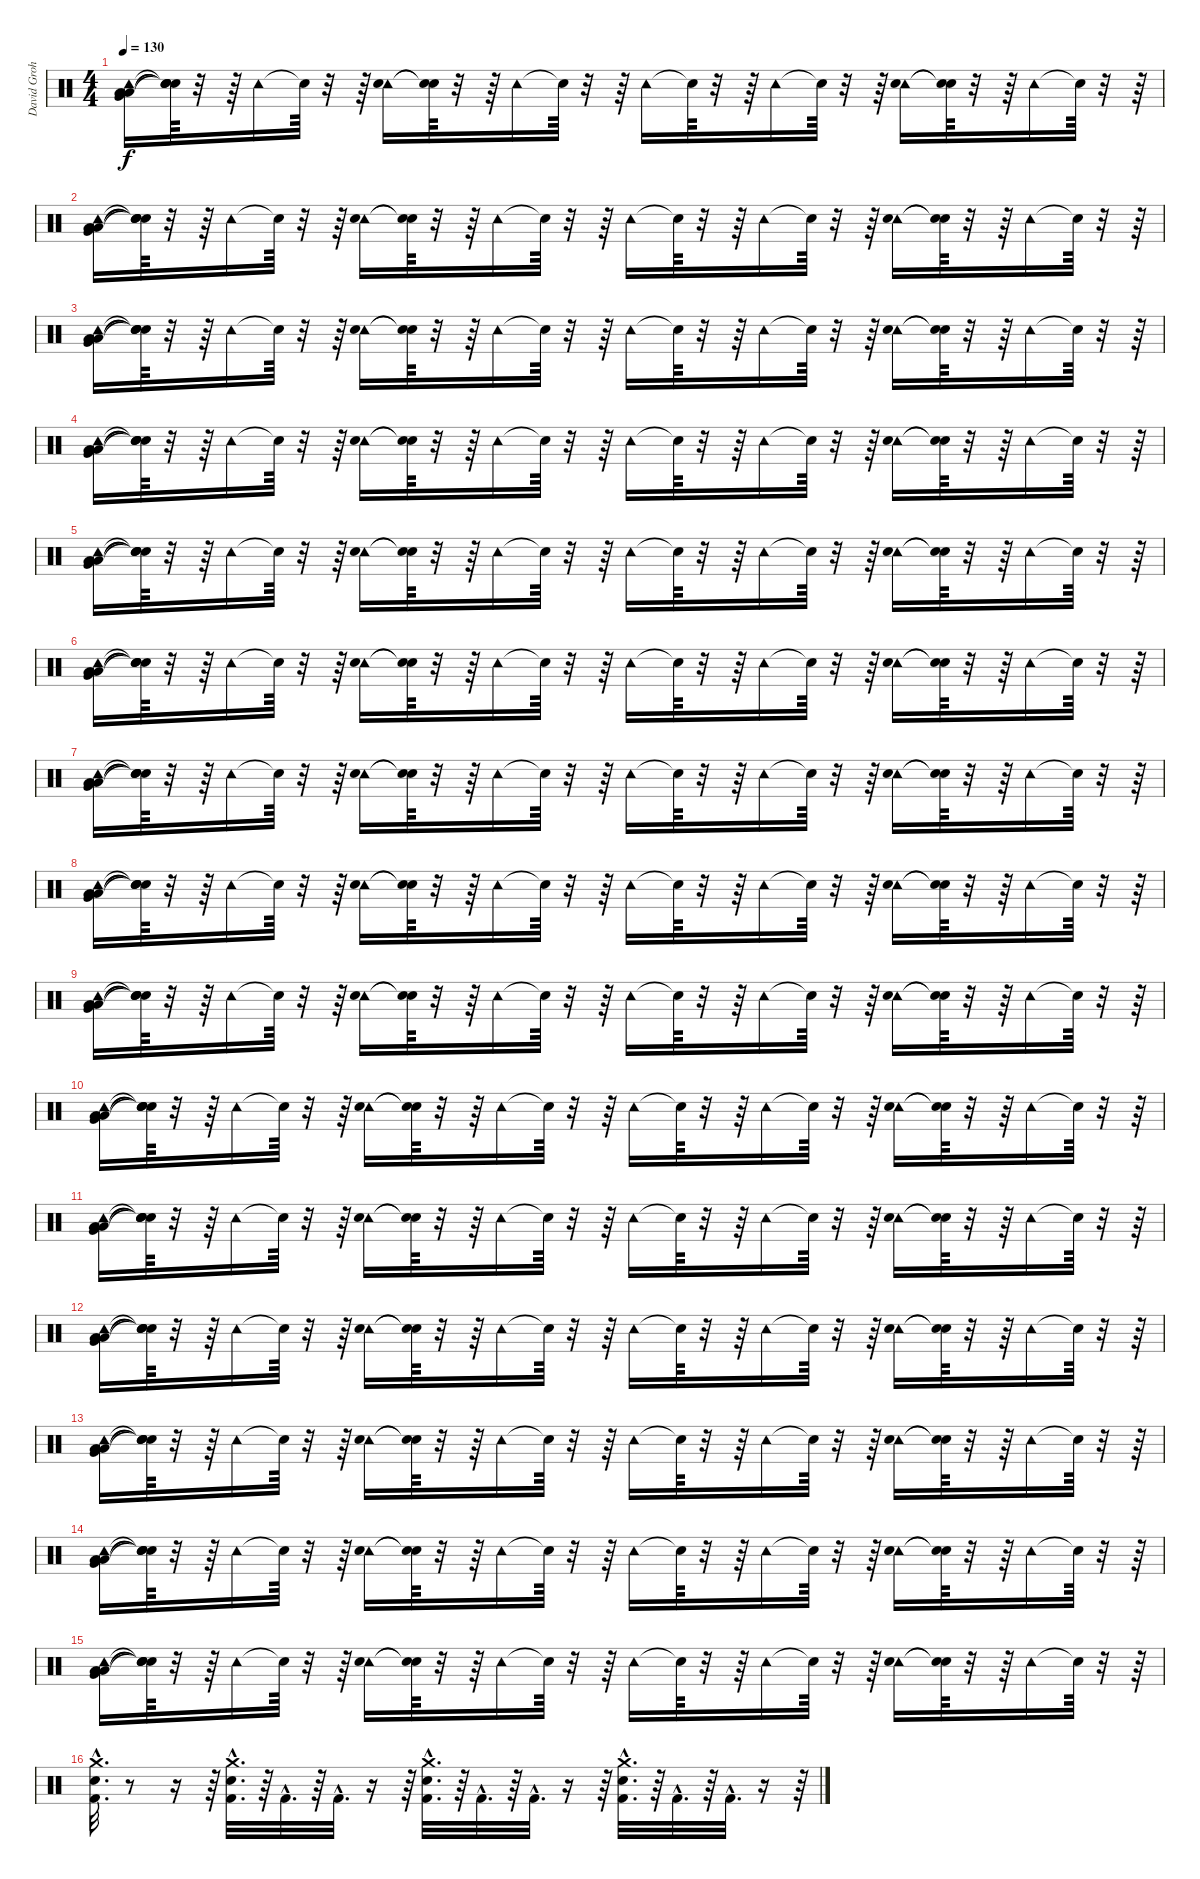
\track ("David Grohl -Drums-" "David Groh") {instrument percussion}
\staff {score}
\articulation defaults
\ts (4 4)
\tempo 130
\clef neutral
\ks c
("Low Floor Tom (hit)" "Very Low Tom (hit)" "Low Tom (hit)" "Tambourine (hit)").16{dy f} ("Snare (hit)"{t} "Snare (hit)"{t} "Snare (hit)"{t} "Snare (hit)"{t}).64 r.32 r.64 "Tambourine (hit)".16 "Snare (hit)"{t}.64 r.32 r.64 ("Tambourine (hit)" "Electric Snare (hit)").16 ("Snare (hit)"{t} "Snare (hit)"{t}).64 r.32 r.64 "Tambourine (hit)".16 "Snare (hit)"{t}.64 r.32 r.64 "Tambourine (hit)".16 "Snare (hit)"{t}.64 r.32 r.64 "Tambourine (hit)".16 "Snare (hit)"{t}.64 r.32 r.64 ("Tambourine (hit)" "Electric Snare (hit)").16 ("Snare (hit)"{t} "Snare (hit)"{t}).64 r.32 r.64 "Tambourine (hit)".16 "Snare (hit)"{t}.64 r.32 r.64 |
("Tambourine (hit)" "Low Floor Tom (hit)" "Very Low Tom (hit)" "Low Tom (hit)").16 ("Snare (hit)"{t} "Snare (hit)"{t} "Snare (hit)"{t} "Snare (hit)"{t}).64 r.32 r.64 "Tambourine (hit)".16 "Snare (hit)"{t}.64 r.32 r.64 ("Tambourine (hit)" "Electric Snare (hit)").16 ("Snare (hit)"{t} "Snare (hit)"{t}).64 r.32 r.64 "Tambourine (hit)".16 "Snare (hit)"{t}.64 r.32 r.64 "Tambourine (hit)".16 "Snare (hit)"{t}.64 r.32 r.64 "Tambourine (hit)".16 "Snare (hit)"{t}.64 r.32 r.64 ("Tambourine (hit)" "Electric Snare (hit)").16 ("Snare (hit)"{t} "Snare (hit)"{t}).64 r.32 r.64 "Tambourine (hit)".16 "Snare (hit)"{t}.64 r.32 r.64 |
("Tambourine (hit)" "Low Floor Tom (hit)" "Very Low Tom (hit)" "Low Tom (hit)").16 ("Snare (hit)"{t} "Snare (hit)"{t} "Snare (hit)"{t} "Snare (hit)"{t}).64 r.32 r.64 "Tambourine (hit)".16 "Snare (hit)"{t}.64 r.32 r.64 ("Tambourine (hit)" "Electric Snare (hit)").16 ("Snare (hit)"{t} "Snare (hit)"{t}).64 r.32 r.64 "Tambourine (hit)".16 "Snare (hit)"{t}.64 r.32 r.64 "Tambourine (hit)".16 "Snare (hit)"{t}.64 r.32 r.64 "Tambourine (hit)".16 "Snare (hit)"{t}.64 r.32 r.64 ("Tambourine (hit)" "Electric Snare (hit)").16 ("Snare (hit)"{t} "Snare (hit)"{t}).64 r.32 r.64 "Tambourine (hit)".16 "Snare (hit)"{t}.64 r.32 r.64 |
("Tambourine (hit)" "Low Floor Tom (hit)" "Very Low Tom (hit)" "Low Tom (hit)").16 ("Snare (hit)"{t} "Snare (hit)"{t} "Snare (hit)"{t} "Snare (hit)"{t}).64 r.32 r.64 "Tambourine (hit)".16 "Snare (hit)"{t}.64 r.32 r.64 ("Tambourine (hit)" "Electric Snare (hit)").16 ("Snare (hit)"{t} "Snare (hit)"{t}).64 r.32 r.64 "Tambourine (hit)".16 "Snare (hit)"{t}.64 r.32 r.64 "Tambourine (hit)".16 "Snare (hit)"{t}.64 r.32 r.64 "Tambourine (hit)".16 "Snare (hit)"{t}.64 r.32 r.64 ("Tambourine (hit)" "Electric Snare (hit)").16 ("Snare (hit)"{t} "Snare (hit)"{t}).64 r.32 r.64 "Tambourine (hit)".16 "Snare (hit)"{t}.64 r.32 r.64 |
("Tambourine (hit)" "Low Floor Tom (hit)" "Very Low Tom (hit)" "Low Tom (hit)").16 ("Snare (hit)"{t} "Snare (hit)"{t} "Snare (hit)"{t} "Snare (hit)"{t}).64 r.32 r.64 "Tambourine (hit)".16 "Snare (hit)"{t}.64 r.32 r.64 ("Tambourine (hit)" "Electric Snare (hit)").16 ("Snare (hit)"{t} "Snare (hit)"{t}).64 r.32 r.64 "Tambourine (hit)".16 "Snare (hit)"{t}.64 r.32 r.64 "Tambourine (hit)".16 "Snare (hit)"{t}.64 r.32 r.64 "Tambourine (hit)".16 "Snare (hit)"{t}.64 r.32 r.64 ("Tambourine (hit)" "Electric Snare (hit)").16 ("Snare (hit)"{t} "Snare (hit)"{t}).64 r.32 r.64 "Tambourine (hit)".16 "Snare (hit)"{t}.64 r.32 r.64 |
("Tambourine (hit)" "Low Floor Tom (hit)" "Very Low Tom (hit)" "Low Tom (hit)").16 ("Snare (hit)"{t} "Snare (hit)"{t} "Snare (hit)"{t} "Snare (hit)"{t}).64 r.32 r.64 "Tambourine (hit)".16 "Snare (hit)"{t}.64 r.32 r.64 ("Tambourine (hit)" "Electric Snare (hit)").16 ("Snare (hit)"{t} "Snare (hit)"{t}).64 r.32 r.64 "Tambourine (hit)".16 "Snare (hit)"{t}.64 r.32 r.64 "Tambourine (hit)".16 "Snare (hit)"{t}.64 r.32 r.64 "Tambourine (hit)".16 "Snare (hit)"{t}.64 r.32 r.64 ("Tambourine (hit)" "Electric Snare (hit)").16 ("Snare (hit)"{t} "Snare (hit)"{t}).64 r.32 r.64 "Tambourine (hit)".16 "Snare (hit)"{t}.64 r.32 r.64 |
("Tambourine (hit)" "Low Floor Tom (hit)" "Very Low Tom (hit)" "Low Tom (hit)").16 ("Snare (hit)"{t} "Snare (hit)"{t} "Snare (hit)"{t} "Snare (hit)"{t}).64 r.32 r.64 "Tambourine (hit)".16 "Snare (hit)"{t}.64 r.32 r.64 ("Tambourine (hit)" "Electric Snare (hit)").16 ("Snare (hit)"{t} "Snare (hit)"{t}).64 r.32 r.64 "Tambourine (hit)".16 "Snare (hit)"{t}.64 r.32 r.64 "Tambourine (hit)".16 "Snare (hit)"{t}.64 r.32 r.64 "Tambourine (hit)".16 "Snare (hit)"{t}.64 r.32 r.64 ("Tambourine (hit)" "Electric Snare (hit)").16 ("Snare (hit)"{t} "Snare (hit)"{t}).64 r.32 r.64 "Tambourine (hit)".16 "Snare (hit)"{t}.64 r.32 r.64 |
("Tambourine (hit)" "Low Floor Tom (hit)" "Very Low Tom (hit)" "Low Tom (hit)").16 ("Snare (hit)"{t} "Snare (hit)"{t} "Snare (hit)"{t} "Snare (hit)"{t}).64 r.32 r.64 "Tambourine (hit)".16 "Snare (hit)"{t}.64 r.32 r.64 ("Tambourine (hit)" "Electric Snare (hit)").16 ("Snare (hit)"{t} "Snare (hit)"{t}).64 r.32 r.64 "Tambourine (hit)".16 "Snare (hit)"{t}.64 r.32 r.64 "Tambourine (hit)".16 "Snare (hit)"{t}.64 r.32 r.64 "Tambourine (hit)".16 "Snare (hit)"{t}.64 r.32 r.64 ("Tambourine (hit)" "Electric Snare (hit)").16 ("Snare (hit)"{t} "Snare (hit)"{t}).64 r.32 r.64 "Tambourine (hit)".16 "Snare (hit)"{t}.64 r.32 r.64 |
("Low Floor Tom (hit)" "Very Low Tom (hit)" "Low Tom (hit)" "Tambourine (hit)").16 ("Snare (hit)"{t} "Snare (hit)"{t} "Snare (hit)"{t} "Snare (hit)"{t}).64 r.32 r.64 "Tambourine (hit)".16 "Snare (hit)"{t}.64 r.32 r.64 ("Tambourine (hit)" "Electric Snare (hit)").16 ("Snare (hit)"{t} "Snare (hit)"{t}).64 r.32 r.64 "Tambourine (hit)".16 "Snare (hit)"{t}.64 r.32 r.64 "Tambourine (hit)".16 "Snare (hit)"{t}.64 r.32 r.64 "Tambourine (hit)".16 "Snare (hit)"{t}.64 r.32 r.64 ("Tambourine (hit)" "Electric Snare (hit)").16 ("Snare (hit)"{t} "Snare (hit)"{t}).64 r.32 r.64 "Tambourine (hit)".16 "Snare (hit)"{t}.64 r.32 r.64 |
("Tambourine (hit)" "Low Floor Tom (hit)" "Very Low Tom (hit)" "Low Tom (hit)").16 ("Snare (hit)"{t} "Snare (hit)"{t} "Snare (hit)"{t} "Snare (hit)"{t}).64 r.32 r.64 "Tambourine (hit)".16 "Snare (hit)"{t}.64 r.32 r.64 ("Tambourine (hit)" "Electric Snare (hit)").16 ("Snare (hit)"{t} "Snare (hit)"{t}).64 r.32 r.64 "Tambourine (hit)".16 "Snare (hit)"{t}.64 r.32 r.64 "Tambourine (hit)".16 "Snare (hit)"{t}.64 r.32 r.64 "Tambourine (hit)".16 "Snare (hit)"{t}.64 r.32 r.64 ("Tambourine (hit)" "Electric Snare (hit)").16 ("Snare (hit)"{t} "Snare (hit)"{t}).64 r.32 r.64 "Tambourine (hit)".16 "Snare (hit)"{t}.64 r.32 r.64 |
("Tambourine (hit)" "Low Floor Tom (hit)" "Very Low Tom (hit)" "Low Tom (hit)").16 ("Snare (hit)"{t} "Snare (hit)"{t} "Snare (hit)"{t} "Snare (hit)"{t}).64 r.32 r.64 "Tambourine (hit)".16 "Snare (hit)"{t}.64 r.32 r.64 ("Tambourine (hit)" "Electric Snare (hit)").16 ("Snare (hit)"{t} "Snare (hit)"{t}).64 r.32 r.64 "Tambourine (hit)".16 "Snare (hit)"{t}.64 r.32 r.64 "Tambourine (hit)".16 "Snare (hit)"{t}.64 r.32 r.64 "Tambourine (hit)".16 "Snare (hit)"{t}.64 r.32 r.64 ("Tambourine (hit)" "Electric Snare (hit)").16 ("Snare (hit)"{t} "Snare (hit)"{t}).64 r.32 r.64 "Tambourine (hit)".16 "Snare (hit)"{t}.64 r.32 r.64 |
("Tambourine (hit)" "Low Floor Tom (hit)" "Very Low Tom (hit)" "Low Tom (hit)").16 ("Snare (hit)"{t} "Snare (hit)"{t} "Snare (hit)"{t} "Snare (hit)"{t}).64 r.32 r.64 "Tambourine (hit)".16 "Snare (hit)"{t}.64 r.32 r.64 ("Tambourine (hit)" "Electric Snare (hit)").16 ("Snare (hit)"{t} "Snare (hit)"{t}).64 r.32 r.64 "Tambourine (hit)".16 "Snare (hit)"{t}.64 r.32 r.64 "Tambourine (hit)".16 "Snare (hit)"{t}.64 r.32 r.64 "Tambourine (hit)".16 "Snare (hit)"{t}.64 r.32 r.64 ("Tambourine (hit)" "Electric Snare (hit)").16 ("Snare (hit)"{t} "Snare (hit)"{t}).64 r.32 r.64 "Tambourine (hit)".16 "Snare (hit)"{t}.64 r.32 r.64 |
("Low Floor Tom (hit)" "Very Low Tom (hit)" "Low Tom (hit)" "Tambourine (hit)").16 ("Snare (hit)"{t} "Snare (hit)"{t} "Snare (hit)"{t} "Snare (hit)"{t}).64 r.32 r.64 "Tambourine (hit)".16 "Snare (hit)"{t}.64 r.32 r.64 ("Tambourine (hit)" "Electric Snare (hit)").16 ("Snare (hit)"{t} "Snare (hit)"{t}).64 r.32 r.64 "Tambourine (hit)".16 "Snare (hit)"{t}.64 r.32 r.64 "Tambourine (hit)".16 "Snare (hit)"{t}.64 r.32 r.64 "Tambourine (hit)".16 "Snare (hit)"{t}.64 r.32 r.64 ("Tambourine (hit)" "Electric Snare (hit)").16 ("Snare (hit)"{t} "Snare (hit)"{t}).64 r.32 r.64 "Tambourine (hit)".16 "Snare (hit)"{t}.64 r.32 r.64 |
("Tambourine (hit)" "Low Floor Tom (hit)" "Very Low Tom (hit)" "Low Tom (hit)").16 ("Snare (hit)"{t} "Snare (hit)"{t} "Snare (hit)"{t} "Snare (hit)"{t}).64 r.32 r.64 "Tambourine (hit)".16 "Snare (hit)"{t}.64 r.32 r.64 ("Tambourine (hit)" "Electric Snare (hit)").16 ("Snare (hit)"{t} "Snare (hit)"{t}).64 r.32 r.64 "Tambourine (hit)".16 "Snare (hit)"{t}.64 r.32 r.64 "Tambourine (hit)".16 "Snare (hit)"{t}.64 r.32 r.64 "Tambourine (hit)".16 "Snare (hit)"{t}.64 r.32 r.64 ("Tambourine (hit)" "Electric Snare (hit)").16 ("Snare (hit)"{t} "Snare (hit)"{t}).64 r.32 r.64 "Tambourine (hit)".16 "Snare (hit)"{t}.64 r.32 r.64 |
("Tambourine (hit)" "Low Floor Tom (hit)" "Very Low Tom (hit)" "Low Tom (hit)").16 ("Snare (hit)"{t} "Snare (hit)"{t} "Snare (hit)"{t} "Snare (hit)"{t}).64 r.32 r.64 "Tambourine (hit)".16 "Snare (hit)"{t}.64 r.32 r.64 ("Tambourine (hit)" "Electric Snare (hit)").16 ("Snare (hit)"{t} "Snare (hit)"{t}).64 r.32 r.64 "Tambourine (hit)".16 "Snare (hit)"{t}.64 r.32 r.64 "Tambourine (hit)".16 "Snare (hit)"{t}.64 r.32 r.64 "Tambourine (hit)".16 "Snare (hit)"{t}.64 r.32 r.64 ("Tambourine (hit)" "Electric Snare (hit)").16 ("Snare (hit)"{t} "Snare (hit)"{t}).64 r.32 r.64 "Tambourine (hit)".16 "Snare (hit)"{t}.64 r.32 r.64 |
("Snare (hit) 2"{hac} "Kick (hit) 2"{hac} "Crash medium (hit)"{hac}).32{d} r.8 r.16 r.64 ("Kick (hit) 2"{hac} "Snare (hit) 2"{hac} "Crash medium (hit)"{hac}).32{d} r.64 "Kick (hit) 2"{hac}.32{d} r.64 "Kick (hit) 2"{hac}.32{d} r.16 r.64 ("Snare (hit) 2"{hac} "Kick (hit) 2"{hac} "Crash medium (hit)"{hac}).32{d} r.64 "Kick (hit) 2"{hac}.32{d} r.64 "Kick (hit) 2"{hac}.32{d} r.16 r.64 ("Kick (hit) 2"{hac} "Snare (hit) 2"{hac} "Crash medium (hit)"{hac}).32{d} r.64 "Kick (hit) 2"{hac}.32{d} r.64 "Kick (hit) 2"{hac}.32{d} r.16 r.64
